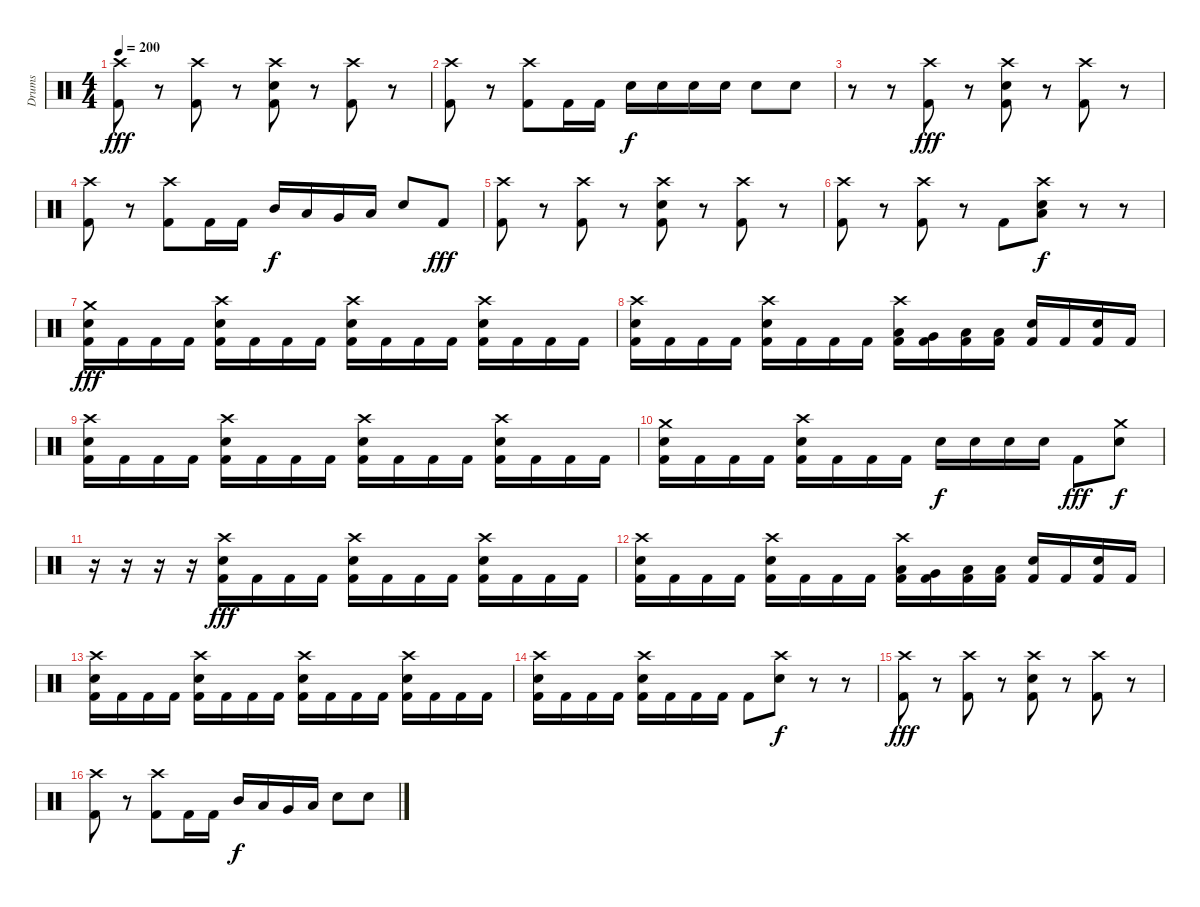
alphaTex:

\track ("Drums" "Drums") {instrument percussion}
\staff {score}
\articulation defaults
\ts (4 4)
\tempo 200
\clef neutral
\ks c
("Crash high (hit)" "Kick (hit) 2").8{dy fff} r.8 ("Crash high (hit)" "Kick (hit) 2").8 r.8 ("Crash high (hit)" "Electric Snare (hit)" "Kick (hit) 2").8 r.8 ("Crash high (hit)" "Kick (hit) 2").8 r.8 |
("Crash high (hit)" "Kick (hit) 2").8 r.8 ("Crash high (hit)" "Kick (hit) 2").8 "Kick (hit) 2".16 "Kick (hit) 2".16 "Electric Snare (hit)".16{dy f} "Electric Snare (hit)".16 "Electric Snare (hit)".16 "Electric Snare (hit)".16 "Electric Snare (hit)".8 "Electric Snare (hit)".8 |
r.8 r.8 ("Crash high (hit)" "Kick (hit) 2").8{dy fff} r.8 ("Crash high (hit)" "Electric Snare (hit)" "Kick (hit) 2").8 r.8 ("Crash high (hit)" "Kick (hit) 2").8 r.8 |
("Crash high (hit)" "Kick (hit) 2").8 r.8 ("Crash high (hit)" "Kick (hit) 2").8 "Kick (hit) 2".16 "Kick (hit) 2".16 "Mid Tom (hit)".16{dy f} "Low Tom (hit)".16 "Very Low Tom (hit)".16 "Low Floor Tom (hit)".16 "Electric Snare (hit)".8 "Kick (hit) 2".8{dy fff} |
("Crash high (hit)" "Kick (hit) 2").8 r.8 ("Crash high (hit)" "Kick (hit) 2").8 r.8 ("Crash high (hit)" "Electric Snare (hit)" "Kick (hit) 2").8 r.8 ("Crash high (hit)" "Kick (hit) 2").8 r.8 |
("Crash high (hit)" "Kick (hit) 2").8 r.8 ("Crash high (hit)" "Kick (hit) 2").8 r.8 "Kick (hit) 2".8 ("Crash high (hit)" "Low Floor Tom (hit)" "Electric Snare (hit)").8{dy f} r.8 r.8 |
("Crash medium (hit)" "Electric Snare (hit)" "Kick (hit) 2").16{dy fff} "Kick (hit) 2".16 "Kick (hit) 2".16 "Kick (hit) 2".16 ("Crash high (hit)" "Electric Snare (hit)" "Kick (hit) 2").16 "Kick (hit) 2".16 "Kick (hit) 2".16 "Kick (hit) 2".16 ("Crash high (hit)" "Electric Snare (hit)" "Kick (hit) 2").16 "Kick (hit) 2".16 "Kick (hit) 2".16 "Kick (hit) 2".16 ("Crash high (hit)" "Electric Snare (hit)" "Kick (hit) 2").16 "Kick (hit) 2".16 "Kick (hit) 2".16 "Kick (hit) 2".16 |
("Crash high (hit)" "Electric Snare (hit)" "Kick (hit) 2").16 "Kick (hit) 2".16 "Kick (hit) 2".16 "Kick (hit) 2".16 ("Crash high (hit)" "Electric Snare (hit)" "Kick (hit) 2").16 "Kick (hit) 2".16 "Kick (hit) 2".16 "Kick (hit) 2".16 ("Crash high (hit)" "Low Tom (hit)" "Kick (hit) 2").16 ("Very Low Tom (hit)" "Kick (hit) 2").16 ("Low Floor Tom (hit)" "Kick (hit) 2").16 ("Low Floor Tom (hit)" "Kick (hit) 2").16 ("Electric Snare (hit)" "Kick (hit) 2").16 "Kick (hit) 2".16 ("Electric Snare (hit)" "Kick (hit) 2").16 "Kick (hit) 2".16 |
("Crash high (hit)" "Electric Snare (hit)" "Kick (hit) 2").16 "Kick (hit) 2".16 "Kick (hit) 2".16 "Kick (hit) 2".16 ("Crash high (hit)" "Electric Snare (hit)" "Kick (hit) 2").16 "Kick (hit) 2".16 "Kick (hit) 2".16 "Kick (hit) 2".16 ("Crash high (hit)" "Electric Snare (hit)" "Kick (hit) 2").16 "Kick (hit) 2".16 "Kick (hit) 2".16 "Kick (hit) 2".16 ("Crash high (hit)" "Electric Snare (hit)" "Kick (hit) 2").16 "Kick (hit) 2".16 "Kick (hit) 2".16 "Kick (hit) 2".16 |
("Crash medium (hit)" "Electric Snare (hit)" "Kick (hit) 2").16 "Kick (hit) 2".16 "Kick (hit) 2".16 "Kick (hit) 2".16 ("Crash high (hit)" "Electric Snare (hit)" "Kick (hit) 2").16 "Kick (hit) 2".16 "Kick (hit) 2".16 "Kick (hit) 2".16 "Electric Snare (hit)".16{dy f} "Electric Snare (hit)".16 "Electric Snare (hit)".16 "Electric Snare (hit)".16 "Kick (hit) 2".8{dy fff} ("Crash medium (hit)" "Electric Snare (hit)").8{dy f} |
r.16 r.16 r.16 r.16 ("Crash high (hit)" "Electric Snare (hit)" "Kick (hit) 2").16{dy fff} "Kick (hit) 2".16 "Kick (hit) 2".16 "Kick (hit) 2".16 ("Crash high (hit)" "Electric Snare (hit)" "Kick (hit) 2").16 "Kick (hit) 2".16 "Kick (hit) 2".16 "Kick (hit) 2".16 ("Crash high (hit)" "Electric Snare (hit)" "Kick (hit) 2").16 "Kick (hit) 2".16 "Kick (hit) 2".16 "Kick (hit) 2".16 |
("Crash high (hit)" "Electric Snare (hit)" "Kick (hit) 2").16 "Kick (hit) 2".16 "Kick (hit) 2".16 "Kick (hit) 2".16 ("Crash high (hit)" "Electric Snare (hit)" "Kick (hit) 2").16 "Kick (hit) 2".16 "Kick (hit) 2".16 "Kick (hit) 2".16 ("Crash high (hit)" "Low Tom (hit)" "Kick (hit) 2").16 ("Very Low Tom (hit)" "Kick (hit) 2").16 ("Low Floor Tom (hit)" "Kick (hit) 2").16 ("Low Floor Tom (hit)" "Kick (hit) 2").16 ("Electric Snare (hit)" "Kick (hit) 2").16 "Kick (hit) 2".16 ("Electric Snare (hit)" "Kick (hit) 2").16 "Kick (hit) 2".16 |
("Crash high (hit)" "Electric Snare (hit)" "Kick (hit) 2").16 "Kick (hit) 2".16 "Kick (hit) 2".16 "Kick (hit) 2".16 ("Crash high (hit)" "Electric Snare (hit)" "Kick (hit) 2").16 "Kick (hit) 2".16 "Kick (hit) 2".16 "Kick (hit) 2".16 ("Crash high (hit)" "Electric Snare (hit)" "Kick (hit) 2").16 "Kick (hit) 2".16 "Kick (hit) 2".16 "Kick (hit) 2".16 ("Crash high (hit)" "Electric Snare (hit)" "Kick (hit) 2").16 "Kick (hit) 2".16 "Kick (hit) 2".16 "Kick (hit) 2".16 |
("Crash high (hit)" "Electric Snare (hit)" "Kick (hit) 2").16 "Kick (hit) 2".16 "Kick (hit) 2".16 "Kick (hit) 2".16 ("Crash high (hit)" "Electric Snare (hit)" "Kick (hit) 2").16 "Kick (hit) 2".16 "Kick (hit) 2".16 "Kick (hit) 2".16 "Kick (hit) 2".8 ("Crash high (hit)" "Electric Snare (hit)").8{dy f} r.8 r.8 |
("Crash high (hit)" "Kick (hit) 2").8{dy fff} r.8 ("Crash high (hit)" "Kick (hit) 2").8 r.8 ("Crash high (hit)" "Electric Snare (hit)" "Kick (hit) 2").8 r.8 ("Crash high (hit)" "Kick (hit) 2").8 r.8 |
("Crash high (hit)" "Kick (hit) 2").8 r.8 ("Crash high (hit)" "Kick (hit) 2").8 "Kick (hit) 2".16 "Kick (hit) 2".16 "Mid Tom (hit)".16{dy f} "Low Tom (hit)".16 "Very Low Tom (hit)".16 "Low Floor Tom (hit)".16 "Electric Snare (hit)".8 "Electric Snare (hit)".8
